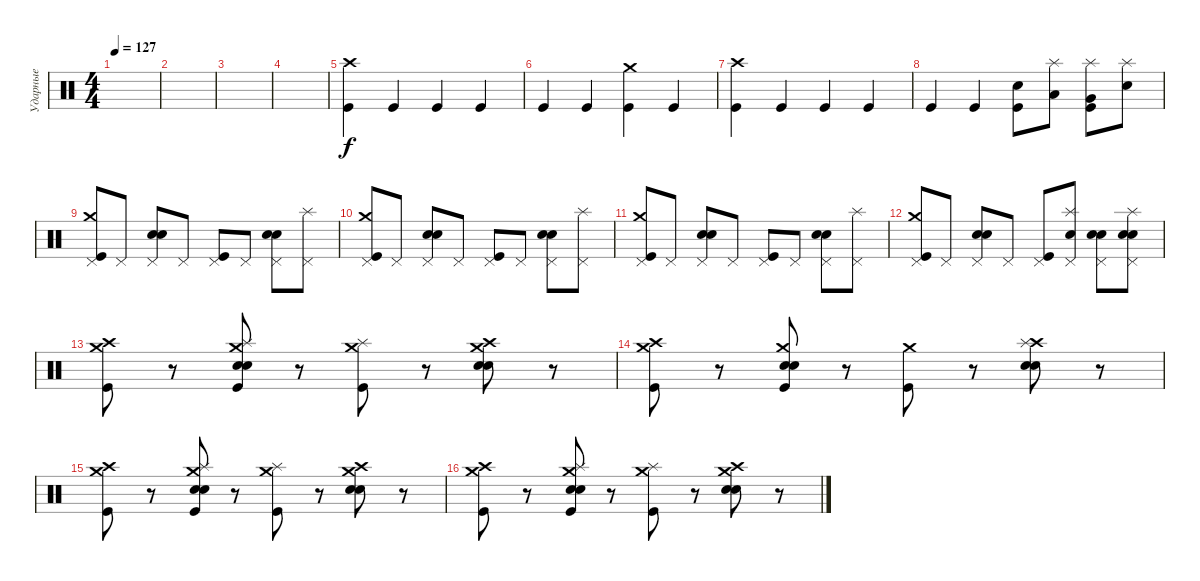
\track ("Ударные" "Ударные") {instrument percussion}
\staff {score}
\articulation defaults
\ts (4 4)
\tempo 127
\clef neutral
\ks c
|
|
|
|
("Crash high (hit)" "Kick (hit)").4 "Kick (hit)".4 "Kick (hit)".4 "Kick (hit)".4 |
"Kick (hit)".4 "Kick (hit)".4 ("Crash medium (hit)" "Kick (hit)").4 "Kick (hit)".4 |
("Crash high (hit)" "Kick (hit)").4 "Kick (hit)".4 "Kick (hit)".4 "Kick (hit)".4 |
"Kick (hit)".4 "Kick (hit)".4 ("Snare (hit) 2" "Kick (hit)").8 ("Splash (hit)" "Low Floor Tom (hit)").8 ("Splash (hit)" "Very Low Tom (hit)" "Kick (hit)").8 ("Splash (hit)" "Electric Snare (hit)").8 |
("Pedal Hi-Hat (hit)" "Crash medium (hit)" "Kick (hit)").8 "Pedal Hi-Hat (hit)".8 ("Pedal Hi-Hat (hit)" "Snare (hit) 2" "Snare (hit) 2").8 "Pedal Hi-Hat (hit)".8 ("Pedal Hi-Hat (hit)" "Kick (hit)").8 "Pedal Hi-Hat (hit)".8 ("Pedal Hi-Hat (hit)" "Snare (hit) 2" "Snare (hit) 2").8 ("Pedal Hi-Hat (hit)" "Splash (hit)").8 |
("Pedal Hi-Hat (hit)" "Crash medium (hit)" "Kick (hit)").8 "Pedal Hi-Hat (hit)".8 ("Pedal Hi-Hat (hit)" "Snare (hit) 2" "Snare (hit) 2").8 "Pedal Hi-Hat (hit)".8 ("Pedal Hi-Hat (hit)" "Kick (hit)").8 "Pedal Hi-Hat (hit)".8 ("Pedal Hi-Hat (hit)" "Snare (hit) 2" "Snare (hit) 2").8 ("Pedal Hi-Hat (hit)" "Splash (hit)").8 |
("Pedal Hi-Hat (hit)" "Crash medium (hit)" "Kick (hit)").8 "Pedal Hi-Hat (hit)".8 ("Pedal Hi-Hat (hit)" "Snare (hit) 2" "Snare (hit) 2").8 "Pedal Hi-Hat (hit)".8 ("Pedal Hi-Hat (hit)" "Kick (hit)").8 "Pedal Hi-Hat (hit)".8 ("Pedal Hi-Hat (hit)" "Snare (hit) 2" "Snare (hit) 2").8 ("Pedal Hi-Hat (hit)" "Splash (hit)").8 |
("Pedal Hi-Hat (hit)" "Crash medium (hit)" "Kick (hit)").8 "Pedal Hi-Hat (hit)".8 ("Pedal Hi-Hat (hit)" "Snare (hit) 2" "Snare (hit) 2").8 "Pedal Hi-Hat (hit)".8 ("Pedal Hi-Hat (hit)" "Kick (hit)").8 ("Pedal Hi-Hat (hit)" "Splash (hit)" "Snare (hit) 2").8 ("Pedal Hi-Hat (hit)" "Snare (hit) 2" "Snare (hit) 2").8 ("Pedal Hi-Hat (hit)" "Splash (hit)" "Electric Snare (hit)" "Electric Snare (hit)").8 |
("Crash high (hit)" "Crash medium (hit)" "Kick (hit)").8 r.8 ("Crash medium (hit)" "Splash (hit)" "Electric Snare (hit)" "Electric Snare (hit)" "Kick (hit)").8 r.8 ("Crash medium (hit)" "Splash (hit)" "Kick (hit)").8 r.8 ("Crash high (hit)" "Crash medium (hit)" "Electric Snare (hit)" "Electric Snare (hit)").8 r.8 |
("Crash high (hit)" "Crash medium (hit)" "Kick (hit)").8 r.8 ("Crash medium (hit)" "Electric Snare (hit)" "Electric Snare (hit)" "Kick (hit)").8 r.8 ("Crash medium (hit)" "Kick (hit)").8 r.8 ("Crash high (hit)" "Splash (hit)" "Electric Snare (hit)" "Electric Snare (hit)").8 r.8 |
("Crash high (hit)" "Crash medium (hit)" "Kick (hit)").8 r.8 ("Crash medium (hit)" "Splash (hit)" "Electric Snare (hit)" "Electric Snare (hit)" "Kick (hit)").8 r.8 ("Crash medium (hit)" "Splash (hit)" "Kick (hit)").8 r.8 ("Crash high (hit)" "Crash medium (hit)" "Electric Snare (hit)" "Electric Snare (hit)").8 r.8 |
("Crash high (hit)" "Crash medium (hit)" "Kick (hit)").8 r.8 ("Crash medium (hit)" "Splash (hit)" "Electric Snare (hit)" "Electric Snare (hit)" "Kick (hit)").8 r.8 ("Crash medium (hit)" "Splash (hit)" "Kick (hit)").8 r.8 ("Crash high (hit)" "Crash medium (hit)" "Electric Snare (hit)" "Electric Snare (hit)").8 r.8
